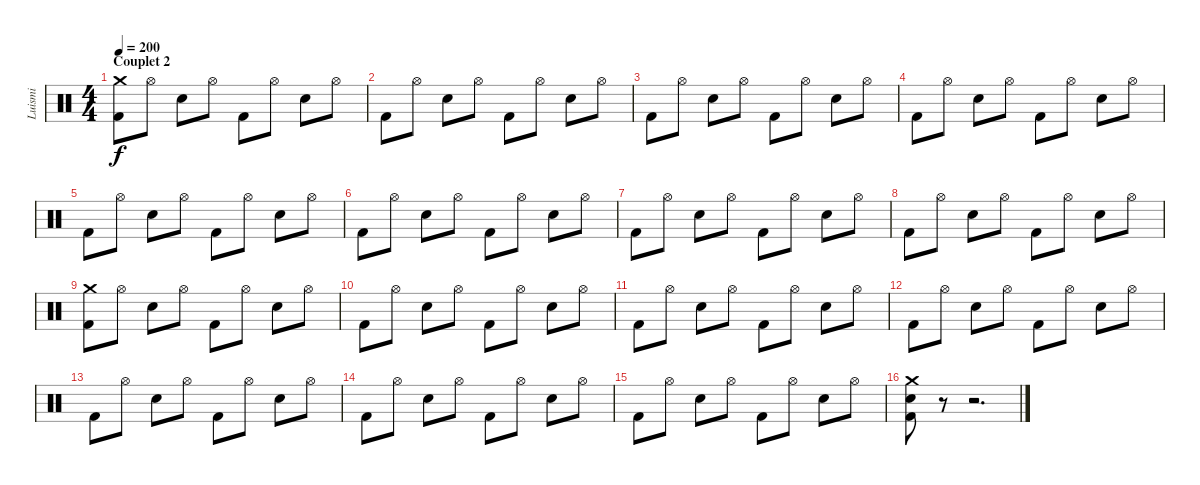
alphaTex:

\track ("Luismi" "Luismi") {instrument percussion}
\staff {score}
\articulation defaults
\ts (4 4)
\section ("" "Couplet 2")
\tempo 200
\clef neutral
\ks c
("Crash medium (hit)" "Kick (hit) 2").8{dy f} "Hi-Hat (open)".8 "Snare (hit) 2".8 "Hi-Hat (open)".8 "Kick (hit) 2".8 "Hi-Hat (open)".8 "Snare (hit) 2".8 "Hi-Hat (open)".8 |
"Kick (hit) 2".8 "Hi-Hat (open)".8 "Snare (hit) 2".8 "Hi-Hat (open)".8 "Kick (hit) 2".8 "Hi-Hat (open)".8 "Snare (hit) 2".8 "Hi-Hat (open)".8 |
"Kick (hit) 2".8 "Hi-Hat (open)".8 "Snare (hit) 2".8 "Hi-Hat (open)".8 "Kick (hit) 2".8 "Hi-Hat (open)".8 "Snare (hit) 2".8 "Hi-Hat (open)".8 |
"Kick (hit) 2".8 "Hi-Hat (open)".8 "Snare (hit) 2".8 "Hi-Hat (open)".8 "Kick (hit) 2".8 "Hi-Hat (open)".8 "Snare (hit) 2".8 "Hi-Hat (open)".8 |
"Kick (hit) 2".8 "Hi-Hat (open)".8 "Snare (hit) 2".8 "Hi-Hat (open)".8 "Kick (hit) 2".8 "Hi-Hat (open)".8 "Snare (hit) 2".8 "Hi-Hat (open)".8 |
"Kick (hit) 2".8 "Hi-Hat (open)".8 "Snare (hit) 2".8 "Hi-Hat (open)".8 "Kick (hit) 2".8 "Hi-Hat (open)".8 "Snare (hit) 2".8 "Hi-Hat (open)".8 |
"Kick (hit) 2".8 "Hi-Hat (open)".8 "Snare (hit) 2".8 "Hi-Hat (open)".8 "Kick (hit) 2".8 "Hi-Hat (open)".8 "Snare (hit) 2".8 "Hi-Hat (open)".8 |
"Kick (hit) 2".8 "Hi-Hat (open)".8 "Snare (hit) 2".8 "Hi-Hat (open)".8 "Kick (hit) 2".8 "Hi-Hat (open)".8 "Snare (hit) 2".8 "Hi-Hat (open)".8 |
("Crash medium (hit)" "Kick (hit) 2").8 "Hi-Hat (open)".8 "Snare (hit) 2".8 "Hi-Hat (open)".8 "Kick (hit) 2".8 "Hi-Hat (open)".8 "Snare (hit) 2".8 "Hi-Hat (open)".8 |
"Kick (hit) 2".8 "Hi-Hat (open)".8 "Snare (hit) 2".8 "Hi-Hat (open)".8 "Kick (hit) 2".8 "Hi-Hat (open)".8 "Snare (hit) 2".8 "Hi-Hat (open)".8 |
"Kick (hit) 2".8 "Hi-Hat (open)".8 "Snare (hit) 2".8 "Hi-Hat (open)".8 "Kick (hit) 2".8 "Hi-Hat (open)".8 "Snare (hit) 2".8 "Hi-Hat (open)".8 |
"Kick (hit) 2".8 "Hi-Hat (open)".8 "Snare (hit) 2".8 "Hi-Hat (open)".8 "Kick (hit) 2".8 "Hi-Hat (open)".8 "Snare (hit) 2".8 "Hi-Hat (open)".8 |
"Kick (hit) 2".8 "Hi-Hat (open)".8 "Snare (hit) 2".8 "Hi-Hat (open)".8 "Kick (hit) 2".8 "Hi-Hat (open)".8 "Snare (hit) 2".8 "Hi-Hat (open)".8 |
"Kick (hit) 2".8 "Hi-Hat (open)".8 "Snare (hit) 2".8 "Hi-Hat (open)".8 "Kick (hit) 2".8 "Hi-Hat (open)".8 "Snare (hit) 2".8 "Hi-Hat (open)".8 |
"Kick (hit) 2".8 "Hi-Hat (open)".8 "Snare (hit) 2".8 "Hi-Hat (open)".8 "Kick (hit) 2".8 "Hi-Hat (open)".8 "Snare (hit) 2".8 "Hi-Hat (open)".8 |
("Crash medium (hit)" "Snare (hit) 2" "Kick (hit) 2").8 r.8 r.2{d}
